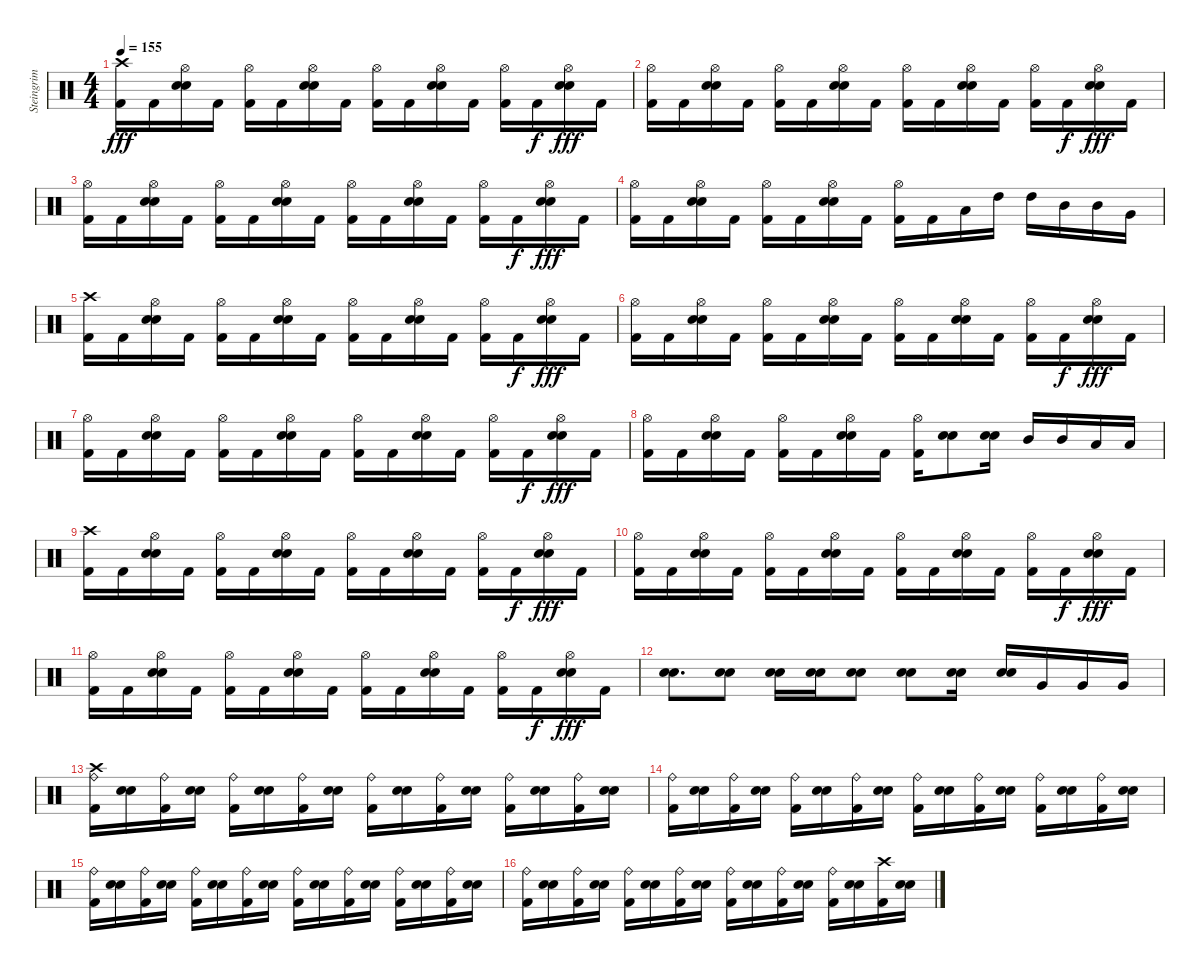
\track ("Steingrim" "Steingrim") {instrument percussion}
\staff {score}
\articulation defaults
\ts (4 4)
\tempo 155
\clef neutral
\ks c
("Kick (hit) 2" "Crash high (hit)").16{dy fff} "Kick (hit) 2".16 ("Snare (hit) 2" "Electric Snare (hit)" "Hi-Hat (open)").16 "Kick (hit) 2".16 ("Kick (hit) 2" "Hi-Hat (open)").16 "Kick (hit) 2".16 ("Snare (hit) 2" "Electric Snare (hit)" "Hi-Hat (open)").16 "Kick (hit) 2".16 ("Kick (hit) 2" "Hi-Hat (open)").16 "Kick (hit) 2".16 ("Snare (hit) 2" "Electric Snare (hit)" "Hi-Hat (open)").16 "Kick (hit) 2".16 ("Kick (hit) 2" "Hi-Hat (open)").16 "Kick (hit) 2".16{dy f} ("Snare (hit) 2" "Electric Snare (hit)" "Hi-Hat (open)").16{dy fff} "Kick (hit) 2".16 |
("Kick (hit) 2" "Hi-Hat (open)").16 "Kick (hit) 2".16 ("Snare (hit) 2" "Electric Snare (hit)" "Hi-Hat (open)").16 "Kick (hit) 2".16 ("Kick (hit) 2" "Hi-Hat (open)").16 "Kick (hit) 2".16 ("Snare (hit) 2" "Electric Snare (hit)" "Hi-Hat (open)").16 "Kick (hit) 2".16 ("Kick (hit) 2" "Hi-Hat (open)").16 "Kick (hit) 2".16 ("Snare (hit) 2" "Electric Snare (hit)" "Hi-Hat (open)").16 "Kick (hit) 2".16 ("Kick (hit) 2" "Hi-Hat (open)").16 "Kick (hit) 2".16{dy f} ("Snare (hit) 2" "Electric Snare (hit)" "Hi-Hat (open)").16{dy fff} "Kick (hit) 2".16 |
("Kick (hit) 2" "Hi-Hat (open)").16 "Kick (hit) 2".16 ("Snare (hit) 2" "Electric Snare (hit)" "Hi-Hat (open)").16 "Kick (hit) 2".16 ("Kick (hit) 2" "Hi-Hat (open)").16 "Kick (hit) 2".16 ("Snare (hit) 2" "Electric Snare (hit)" "Hi-Hat (open)").16 "Kick (hit) 2".16 ("Kick (hit) 2" "Hi-Hat (open)").16 "Kick (hit) 2".16 ("Snare (hit) 2" "Electric Snare (hit)" "Hi-Hat (open)").16 "Kick (hit) 2".16 ("Kick (hit) 2" "Hi-Hat (open)").16 "Kick (hit) 2".16{dy f} ("Snare (hit) 2" "Electric Snare (hit)" "Hi-Hat (open)").16{dy fff} "Kick (hit) 2".16 |
("Kick (hit) 2" "Hi-Hat (open)").16 "Kick (hit) 2".16 ("Snare (hit) 2" "Electric Snare (hit)" "Hi-Hat (open)").16 "Kick (hit) 2".16 ("Kick (hit) 2" "Hi-Hat (open)").16 "Kick (hit) 2".16 ("Snare (hit) 2" "Electric Snare (hit)" "Hi-Hat (open)").16 "Kick (hit) 2".16 ("Kick (hit) 2" "Hi-Hat (open)").16 "Kick (hit) 2".16 "Low Tom (hit)".16 "High Tom (hit)".16 "High Tom (hit)".16 "Mid Tom (hit)".16 "Mid Tom (hit)".16 "Very Low Tom (hit)".16 |
("Kick (hit) 2" "Crash high (hit)").16 "Kick (hit) 2".16 ("Snare (hit) 2" "Electric Snare (hit)" "Hi-Hat (open)").16 "Kick (hit) 2".16 ("Kick (hit) 2" "Hi-Hat (open)").16 "Kick (hit) 2".16 ("Snare (hit) 2" "Electric Snare (hit)" "Hi-Hat (open)").16 "Kick (hit) 2".16 ("Kick (hit) 2" "Hi-Hat (open)").16 "Kick (hit) 2".16 ("Snare (hit) 2" "Electric Snare (hit)" "Hi-Hat (open)").16 "Kick (hit) 2".16 ("Kick (hit) 2" "Hi-Hat (open)").16 "Kick (hit) 2".16{dy f} ("Snare (hit) 2" "Electric Snare (hit)" "Hi-Hat (open)").16{dy fff} "Kick (hit) 2".16 |
("Kick (hit) 2" "Hi-Hat (open)").16 "Kick (hit) 2".16 ("Snare (hit) 2" "Electric Snare (hit)" "Hi-Hat (open)").16 "Kick (hit) 2".16 ("Kick (hit) 2" "Hi-Hat (open)").16 "Kick (hit) 2".16 ("Snare (hit) 2" "Electric Snare (hit)" "Hi-Hat (open)").16 "Kick (hit) 2".16 ("Kick (hit) 2" "Hi-Hat (open)").16 "Kick (hit) 2".16 ("Snare (hit) 2" "Electric Snare (hit)" "Hi-Hat (open)").16 "Kick (hit) 2".16 ("Kick (hit) 2" "Hi-Hat (open)").16 "Kick (hit) 2".16{dy f} ("Snare (hit) 2" "Electric Snare (hit)" "Hi-Hat (open)").16{dy fff} "Kick (hit) 2".16 |
("Kick (hit) 2" "Hi-Hat (open)").16 "Kick (hit) 2".16 ("Snare (hit) 2" "Electric Snare (hit)" "Hi-Hat (open)").16 "Kick (hit) 2".16 ("Kick (hit) 2" "Hi-Hat (open)").16 "Kick (hit) 2".16 ("Snare (hit) 2" "Electric Snare (hit)" "Hi-Hat (open)").16 "Kick (hit) 2".16 ("Kick (hit) 2" "Hi-Hat (open)").16 "Kick (hit) 2".16 ("Snare (hit) 2" "Electric Snare (hit)" "Hi-Hat (open)").16 "Kick (hit) 2".16 ("Kick (hit) 2" "Hi-Hat (open)").16 "Kick (hit) 2".16{dy f} ("Snare (hit) 2" "Electric Snare (hit)" "Hi-Hat (open)").16{dy fff} "Kick (hit) 2".16 |
("Kick (hit) 2" "Hi-Hat (open)").16 "Kick (hit) 2".16 ("Snare (hit) 2" "Electric Snare (hit)" "Hi-Hat (open)").16 "Kick (hit) 2".16 ("Kick (hit) 2" "Hi-Hat (open)").16 "Kick (hit) 2".16 ("Snare (hit) 2" "Electric Snare (hit)" "Hi-Hat (open)").16 "Kick (hit) 2".16 ("Kick (hit) 2" "Hi-Hat (open)").16 ("Snare (hit) 2" "Electric Snare (hit)").8 ("Snare (hit) 2" "Electric Snare (hit)").16 "Mid Tom (hit)".16 "Mid Tom (hit)".16 "Low Tom (hit)".16 "Low Tom (hit)".16 |
("Kick (hit) 2" "Crash high (hit)").16 "Kick (hit) 2".16 ("Snare (hit) 2" "Electric Snare (hit)" "Hi-Hat (open)").16 "Kick (hit) 2".16 ("Kick (hit) 2" "Hi-Hat (open)").16 "Kick (hit) 2".16 ("Snare (hit) 2" "Electric Snare (hit)" "Hi-Hat (open)").16 "Kick (hit) 2".16 ("Kick (hit) 2" "Hi-Hat (open)").16 "Kick (hit) 2".16 ("Snare (hit) 2" "Electric Snare (hit)" "Hi-Hat (open)").16 "Kick (hit) 2".16 ("Kick (hit) 2" "Hi-Hat (open)").16 "Kick (hit) 2".16{dy f} ("Snare (hit) 2" "Electric Snare (hit)" "Hi-Hat (open)").16{dy fff} "Kick (hit) 2".16 |
("Kick (hit) 2" "Hi-Hat (open)").16 "Kick (hit) 2".16 ("Snare (hit) 2" "Electric Snare (hit)" "Hi-Hat (open)").16 "Kick (hit) 2".16 ("Kick (hit) 2" "Hi-Hat (open)").16 "Kick (hit) 2".16 ("Snare (hit) 2" "Electric Snare (hit)" "Hi-Hat (open)").16 "Kick (hit) 2".16 ("Kick (hit) 2" "Hi-Hat (open)").16 "Kick (hit) 2".16 ("Snare (hit) 2" "Electric Snare (hit)" "Hi-Hat (open)").16 "Kick (hit) 2".16 ("Kick (hit) 2" "Hi-Hat (open)").16 "Kick (hit) 2".16{dy f} ("Snare (hit) 2" "Electric Snare (hit)" "Hi-Hat (open)").16{dy fff} "Kick (hit) 2".16 |
("Kick (hit) 2" "Hi-Hat (open)").16 "Kick (hit) 2".16 ("Snare (hit) 2" "Electric Snare (hit)" "Hi-Hat (open)").16 "Kick (hit) 2".16 ("Kick (hit) 2" "Hi-Hat (open)").16 "Kick (hit) 2".16 ("Snare (hit) 2" "Electric Snare (hit)" "Hi-Hat (open)").16 "Kick (hit) 2".16 ("Kick (hit) 2" "Hi-Hat (open)").16 "Kick (hit) 2".16 ("Snare (hit) 2" "Electric Snare (hit)" "Hi-Hat (open)").16 "Kick (hit) 2".16 ("Kick (hit) 2" "Hi-Hat (open)").16 "Kick (hit) 2".16{dy f} ("Snare (hit) 2" "Electric Snare (hit)" "Hi-Hat (open)").16{dy fff} "Kick (hit) 2".16 |
("Snare (hit) 2" "Electric Snare (hit)").8{d} ("Snare (hit) 2" "Electric Snare (hit)").8 ("Snare (hit) 2" "Electric Snare (hit)").16 ("Snare (hit) 2" "Electric Snare (hit)").16 ("Snare (hit) 2" "Electric Snare (hit)").8 ("Snare (hit) 2" "Electric Snare (hit)").8 ("Snare (hit) 2" "Electric Snare (hit)").16 ("Snare (hit) 2" "Electric Snare (hit)").16 "Very Low Tom (hit)".16 "Very Low Tom (hit)".16 "Very Low Tom (hit)".16 |
("Kick (hit) 2" "Ride (bell)" "Crash high (hit)").16 ("Snare (hit) 2" "Electric Snare (hit)").16 ("Kick (hit) 2" "Ride (bell)").16 ("Snare (hit) 2" "Electric Snare (hit)").16 ("Kick (hit) 2" "Ride (bell)").16 ("Snare (hit) 2" "Electric Snare (hit)").16 ("Kick (hit) 2" "Ride (bell)").16 ("Snare (hit) 2" "Electric Snare (hit)").16 ("Kick (hit) 2" "Ride (bell)").16 ("Snare (hit) 2" "Electric Snare (hit)").16 ("Kick (hit) 2" "Ride (bell)").16 ("Snare (hit) 2" "Electric Snare (hit)").16 ("Kick (hit) 2" "Ride (bell)").16 ("Snare (hit) 2" "Electric Snare (hit)").16 ("Kick (hit) 2" "Ride (bell)").16 ("Snare (hit) 2" "Electric Snare (hit)").16 |
("Kick (hit) 2" "Ride (bell)").16 ("Snare (hit) 2" "Electric Snare (hit)").16 ("Kick (hit) 2" "Ride (bell)").16 ("Snare (hit) 2" "Electric Snare (hit)").16 ("Kick (hit) 2" "Ride (bell)").16 ("Snare (hit) 2" "Electric Snare (hit)").16 ("Kick (hit) 2" "Ride (bell)").16 ("Snare (hit) 2" "Electric Snare (hit)").16 ("Kick (hit) 2" "Ride (bell)").16 ("Snare (hit) 2" "Electric Snare (hit)").16 ("Kick (hit) 2" "Ride (bell)").16 ("Snare (hit) 2" "Electric Snare (hit)").16 ("Kick (hit) 2" "Ride (bell)").16 ("Snare (hit) 2" "Electric Snare (hit)").16 ("Kick (hit) 2" "Ride (bell)").16 ("Snare (hit) 2" "Electric Snare (hit)").16 |
("Kick (hit) 2" "Ride (bell)").16 ("Snare (hit) 2" "Electric Snare (hit)").16 ("Kick (hit) 2" "Ride (bell)").16 ("Snare (hit) 2" "Electric Snare (hit)").16 ("Kick (hit) 2" "Ride (bell)").16 ("Snare (hit) 2" "Electric Snare (hit)").16 ("Kick (hit) 2" "Ride (bell)").16 ("Snare (hit) 2" "Electric Snare (hit)").16 ("Kick (hit) 2" "Ride (bell)").16 ("Snare (hit) 2" "Electric Snare (hit)").16 ("Kick (hit) 2" "Ride (bell)").16 ("Snare (hit) 2" "Electric Snare (hit)").16 ("Kick (hit) 2" "Ride (bell)").16 ("Snare (hit) 2" "Electric Snare (hit)").16 ("Kick (hit) 2" "Ride (bell)").16 ("Snare (hit) 2" "Electric Snare (hit)").16 |
("Kick (hit) 2" "Ride (bell)").16 ("Snare (hit) 2" "Electric Snare (hit)").16 ("Kick (hit) 2" "Ride (bell)").16 ("Snare (hit) 2" "Electric Snare (hit)").16 ("Kick (hit) 2" "Ride (bell)").16 ("Snare (hit) 2" "Electric Snare (hit)").16 ("Kick (hit) 2" "Ride (bell)").16 ("Snare (hit) 2" "Electric Snare (hit)").16 ("Kick (hit) 2" "Ride (bell)").16 ("Snare (hit) 2" "Electric Snare (hit)").16 ("Kick (hit) 2" "Ride (bell)").16 ("Snare (hit) 2" "Electric Snare (hit)").16 ("Kick (hit) 2" "Ride (bell)").16 ("Snare (hit) 2" "Electric Snare (hit)").16 ("Kick (hit) 2" "Crash high (hit)").16 ("Snare (hit) 2" "Electric Snare (hit)").16
